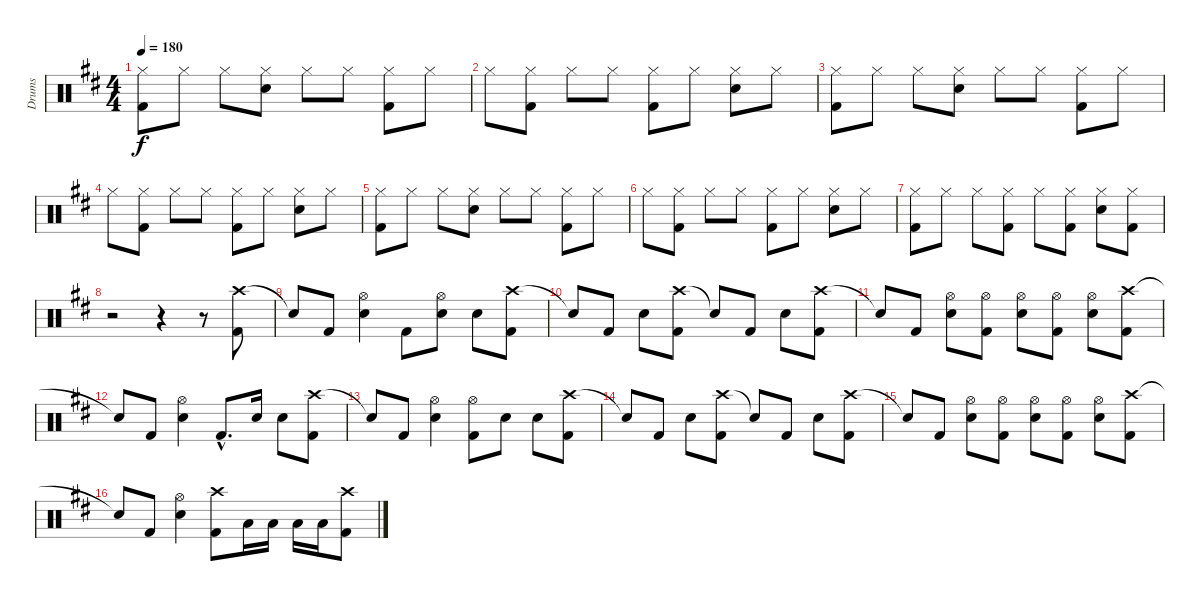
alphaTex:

\track ("Drums" "Drums") {instrument percussion}
\staff {score}
\articulation defaults
\ts (4 4)
\tempo 180
\clef neutral
\ks bminor
("Hi-Hat (closed)" "Kick (hit) 2").8{dy f} "Hi-Hat (closed)".8 "Hi-Hat (closed)".8 ("Hi-Hat (closed)" "Electric Snare (hit)").8 "Hi-Hat (closed)".8 "Hi-Hat (closed)".8 ("Hi-Hat (closed)" "Kick (hit) 2").8 "Hi-Hat (closed)".8 |
"Hi-Hat (closed)".8 ("Hi-Hat (closed)" "Kick (hit) 2").8 "Hi-Hat (closed)".8 "Hi-Hat (closed)".8 ("Hi-Hat (closed)" "Kick (hit) 2").8 "Hi-Hat (closed)".8 ("Hi-Hat (closed)" "Electric Snare (hit)").8 "Hi-Hat (closed)".8 |
("Hi-Hat (closed)" "Kick (hit) 2").8 "Hi-Hat (closed)".8 "Hi-Hat (closed)".8 ("Hi-Hat (closed)" "Electric Snare (hit)").8 "Hi-Hat (closed)".8 "Hi-Hat (closed)".8 ("Hi-Hat (closed)" "Kick (hit) 2").8 "Hi-Hat (closed)".8 |
"Hi-Hat (closed)".8 ("Hi-Hat (closed)" "Kick (hit) 2").8 "Hi-Hat (closed)".8 "Hi-Hat (closed)".8 ("Hi-Hat (closed)" "Kick (hit) 2").8 "Hi-Hat (closed)".8 ("Hi-Hat (closed)" "Electric Snare (hit)").8 "Hi-Hat (closed)".8 |
("Hi-Hat (closed)" "Kick (hit) 2").8 "Hi-Hat (closed)".8 "Hi-Hat (closed)".8 ("Hi-Hat (closed)" "Electric Snare (hit)").8 "Hi-Hat (closed)".8 "Hi-Hat (closed)".8 ("Hi-Hat (closed)" "Kick (hit) 2").8 "Hi-Hat (closed)".8 |
"Hi-Hat (closed)".8 ("Hi-Hat (closed)" "Kick (hit) 2").8 "Hi-Hat (closed)".8 "Hi-Hat (closed)".8 ("Hi-Hat (closed)" "Kick (hit) 2").8 "Hi-Hat (closed)".8 ("Hi-Hat (closed)" "Electric Snare (hit)").8 "Hi-Hat (closed)".8 |
("Hi-Hat (closed)" "Kick (hit) 2").8 "Hi-Hat (closed)".8 "Hi-Hat (closed)".8 ("Hi-Hat (closed)" "Kick (hit) 2").8 "Hi-Hat (closed)".8 ("Hi-Hat (closed)" "Kick (hit) 2").8 ("Hi-Hat (closed)" "Electric Snare (hit)").8 ("Hi-Hat (closed)" "Kick (hit) 2").8 |
r.2 r.4 r.8 ("Crash high (hit)" "Kick (hit) 2").8 |
"Snare (hit)"{t}.8 "Kick (hit) 2".8 ("Hi-Hat (open)" "Electric Snare (hit)").4 "Kick (hit) 2".8 ("Hi-Hat (open)" "Electric Snare (hit)").8 "Electric Snare (hit)".8 ("Crash high (hit)" "Kick (hit) 2").8 |
"Snare (hit)"{t}.8 "Kick (hit) 2".8 "Electric Snare (hit)".8 ("Crash high (hit)" "Kick (hit) 2").8 "Snare (hit)"{t}.8 "Kick (hit) 2".8 "Electric Snare (hit)".8 ("Crash high (hit)" "Kick (hit) 2").8 |
"Snare (hit)"{t}.8 "Kick (hit) 2".8 ("Hi-Hat (open)" "Electric Snare (hit)").8 ("Hi-Hat (open)" "Kick (hit) 2").8 ("Hi-Hat (open)" "Electric Snare (hit)").8 ("Hi-Hat (open)" "Kick (hit) 2").8 ("Hi-Hat (open)" "Electric Snare (hit)").8 ("Crash high (hit)" "Kick (hit) 2").8 |
"Snare (hit)"{t}.8 "Kick (hit) 2".8 ("Hi-Hat (open)" "Electric Snare (hit)").4 "Kick (hit) 2"{hac}.8{d} "Electric Snare (hit)".16 "Electric Snare (hit)".8 ("Crash high (hit)" "Kick (hit) 2").8 |
"Snare (hit)"{t}.8 "Kick (hit) 2".8 ("Hi-Hat (open)" "Electric Snare (hit)").4 ("Hi-Hat (open)" "Kick (hit) 2").8 "Electric Snare (hit)".8 "Electric Snare (hit)".8 ("Crash high (hit)" "Kick (hit) 2").8 |
"Snare (hit)"{t}.8 "Kick (hit) 2".8 "Electric Snare (hit)".8 ("Crash high (hit)" "Kick (hit) 2").8 "Snare (hit)"{t}.8 "Kick (hit) 2".8 "Electric Snare (hit)".8 ("Crash high (hit)" "Kick (hit) 2").8 |
"Snare (hit)"{t}.8 "Kick (hit) 2".8 ("Hi-Hat (open)" "Electric Snare (hit)").8 ("Hi-Hat (open)" "Kick (hit) 2").8 ("Hi-Hat (open)" "Electric Snare (hit)").8 ("Hi-Hat (open)" "Kick (hit) 2").8 ("Hi-Hat (open)" "Electric Snare (hit)").8 ("Crash high (hit)" "Kick (hit) 2").8 |
"Snare (hit)"{t}.8 "Kick (hit) 2".8 ("Hi-Hat (open)" "Electric Snare (hit)").4 ("Crash high (hit)" "Kick (hit) 2").8 "Low Floor Tom (hit)".16 "Low Floor Tom (hit)".16 "Low Floor Tom (hit)".16 "Low Floor Tom (hit)".16 ("Crash high (hit)" "Kick (hit) 2").8
